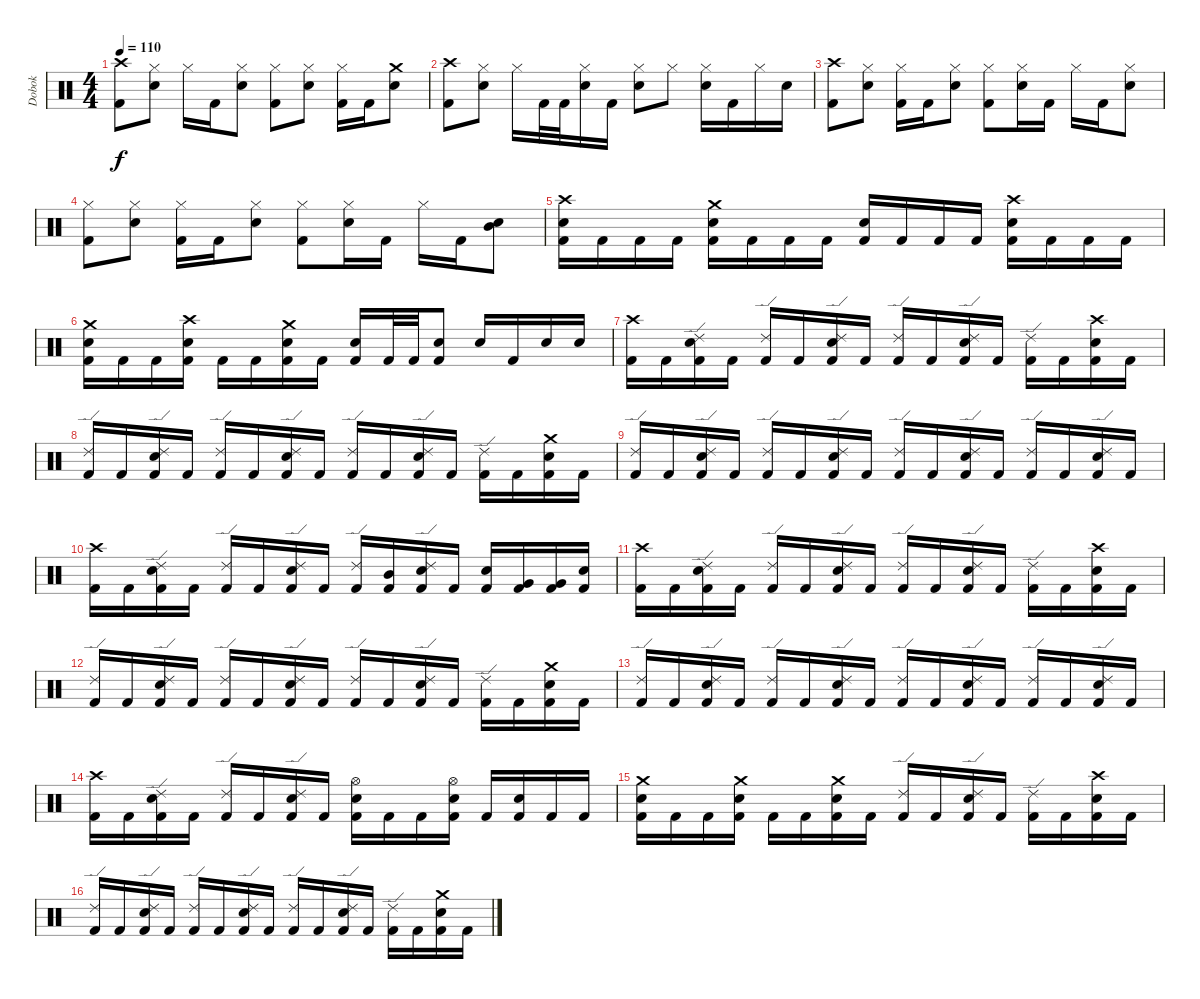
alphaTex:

\track ("Dobok" "Dobok") {instrument percussion}
\staff {score}
\articulation defaults
\ts (4 4)
\tempo 110
\clef neutral
\ks c
("Crash high (hit)" "Kick (hit) 2").8{dy f} ("Hi-Hat (closed)" "Snare (hit) 2").8 "Hi-Hat (closed)".16 "Kick (hit) 2".16 ("Hi-Hat (closed)" "Snare (hit) 2").8 ("Hi-Hat (closed)" "Kick (hit) 2").8 ("Hi-Hat (closed)" "Snare (hit) 2").8 ("Hi-Hat (closed)" "Kick (hit) 2").16 "Kick (hit) 2".16 ("Crash medium (hit)" "Snare (hit) 2").8 |
("Crash high (hit)" "Kick (hit) 2").8 ("Hi-Hat (closed)" "Snare (hit) 2").8 "Hi-Hat (closed)".16 "Kick (hit) 2".32 "Kick (hit) 2".32 ("Hi-Hat (closed)" "Snare (hit) 2").16 "Kick (hit) 2".16 ("Hi-Hat (closed)" "Snare (hit) 2").8 "Hi-Hat (closed)".8 ("Hi-Hat (closed)" "Snare (hit) 2").16 "Kick (hit) 2".16 "Hi-Hat (closed)".16 "Snare (hit) 2".16 |
("Crash high (hit)" "Kick (hit) 2").8 ("Hi-Hat (closed)" "Snare (hit) 2").8 ("Hi-Hat (closed)" "Kick (hit) 2").16 "Kick (hit) 2".16 ("Hi-Hat (closed)" "Snare (hit) 2").8 ("Hi-Hat (closed)" "Kick (hit) 2").8 ("Hi-Hat (closed)" "Snare (hit) 2").16 "Kick (hit) 2".16 "Hi-Hat (closed)".16 "Kick (hit) 2".16 ("Hi-Hat (closed)" "Snare (hit) 2").8 |
("Hi-Hat (closed)" "Kick (hit) 2").8 ("Hi-Hat (closed)" "Snare (hit) 2").8 ("Hi-Hat (closed)" "Kick (hit) 2").16 "Kick (hit) 2".16 ("Hi-Hat (closed)" "Snare (hit) 2").8 ("Hi-Hat (closed)" "Kick (hit) 2").8 ("Hi-Hat (closed)" "Snare (hit) 2").16 "Kick (hit) 2".16 "Hi-Hat (closed)".16 "Kick (hit) 2".16 ("Snare (hit) 2" "Mid Tom (hit)").8 |
("Crash high (hit)" "Snare (hit) 2" "Kick (hit) 2").16 "Kick (hit) 2".16 "Kick (hit) 2".16 "Kick (hit) 2".16 ("Crash medium (hit)" "Snare (hit) 2" "Kick (hit) 2").16 "Kick (hit) 2".16 "Kick (hit) 2".16 "Kick (hit) 2".16 ("Snare (hit) 2" "Kick (hit) 2").16 "Kick (hit) 2".16 "Kick (hit) 2".16 "Kick (hit) 2".16 ("Crash high (hit)" "Snare (hit) 2" "Kick (hit) 2").16 "Kick (hit) 2".16 "Kick (hit) 2".16 "Kick (hit) 2".16 |
("Crash medium (hit)" "Snare (hit) 2" "Kick (hit) 2").16 "Kick (hit) 2".16 "Kick (hit) 2".16 ("Crash high (hit)" "Snare (hit) 2" "Kick (hit) 2").16 "Kick (hit) 2".16 "Kick (hit) 2".16 ("Crash medium (hit)" "Snare (hit) 2" "Kick (hit) 2").16 "Kick (hit) 2".16 ("Snare (hit) 2" "Kick (hit) 2").16 "Kick (hit) 2".32 "Kick (hit) 2".32 ("Snare (hit) 2" "Kick (hit) 2").8 "Snare (hit) 2".16 "Kick (hit) 2".16 "Snare (hit) 2".16 "Snare (hit) 2".16 |
("Crash high (hit)" "Kick (hit) 2").16 "Kick (hit) 2".16 ("Ride (edge) 2" "Snare (hit) 2" "Kick (hit) 2").16 "Kick (hit) 2".16 ("Ride (edge) 2" "Kick (hit) 2").16 "Kick (hit) 2".16 ("Ride (edge) 2" "Snare (hit) 2" "Kick (hit) 2").16 "Kick (hit) 2".16 ("Ride (edge) 2" "Kick (hit) 2").16 "Kick (hit) 2".16 ("Ride (edge) 2" "Snare (hit) 2" "Kick (hit) 2").16 "Kick (hit) 2".16 ("Ride (edge) 2" "Kick (hit) 2").16 "Kick (hit) 2".16 ("Crash high (hit)" "Snare (hit) 2" "Kick (hit) 2").16 "Kick (hit) 2".16 |
("Ride (edge) 2" "Kick (hit) 2").16 "Kick (hit) 2".16 ("Ride (edge) 2" "Snare (hit) 2" "Kick (hit) 2").16 "Kick (hit) 2".16 ("Ride (edge) 2" "Kick (hit) 2").16 "Kick (hit) 2".16 ("Ride (edge) 2" "Snare (hit) 2" "Kick (hit) 2").16 "Kick (hit) 2".16 ("Ride (edge) 2" "Kick (hit) 2").16 "Kick (hit) 2".16 ("Ride (edge) 2" "Snare (hit) 2" "Kick (hit) 2").16 "Kick (hit) 2".16 ("Ride (edge) 2" "Kick (hit) 2").16 "Kick (hit) 2".16 ("Crash medium (hit)" "Snare (hit) 2" "Kick (hit) 2").16 "Kick (hit) 2".16 |
("Ride (edge) 2" "Kick (hit) 2").16 "Kick (hit) 2".16 ("Ride (edge) 2" "Snare (hit) 2" "Kick (hit) 2").16 "Kick (hit) 2".16 ("Ride (edge) 2" "Kick (hit) 2").16 "Kick (hit) 2".16 ("Ride (edge) 2" "Snare (hit) 2" "Kick (hit) 2").16 "Kick (hit) 2".16 ("Ride (edge) 2" "Kick (hit) 2").16 "Kick (hit) 2".16 ("Ride (edge) 2" "Snare (hit) 2" "Kick (hit) 2").16 "Kick (hit) 2".16 ("Ride (edge) 2" "Kick (hit) 2").16 "Kick (hit) 2".16 ("Ride (edge) 2" "Snare (hit) 2" "Kick (hit) 2").16 "Kick (hit) 2".16 |
("Crash high (hit)" "Kick (hit) 2").16 "Kick (hit) 2".16 ("Ride (edge) 2" "Snare (hit) 2" "Kick (hit) 2").16 "Kick (hit) 2".16 ("Ride (edge) 2" "Kick (hit) 2").16 "Kick (hit) 2".16 ("Ride (edge) 2" "Snare (hit) 2" "Kick (hit) 2").16 "Kick (hit) 2".16 ("Ride (edge) 2" "Kick (hit) 2").16 ("Mid Tom (hit)" "Kick (hit) 2").16 ("Ride (edge) 2" "Snare (hit) 2" "Kick (hit) 2").16 "Kick (hit) 2".16 ("Snare (hit) 2" "Kick (hit) 2").16 ("Very Low Tom (hit)" "Kick (hit) 2").16 ("Very Low Tom (hit)" "Kick (hit) 2").16 ("Snare (hit) 2" "Kick (hit) 2").16 |
("Crash high (hit)" "Kick (hit) 2").16 "Kick (hit) 2".16 ("Ride (edge) 2" "Snare (hit) 2" "Kick (hit) 2").16 "Kick (hit) 2".16 ("Ride (edge) 2" "Kick (hit) 2").16 "Kick (hit) 2".16 ("Ride (edge) 2" "Snare (hit) 2" "Kick (hit) 2").16 "Kick (hit) 2".16 ("Ride (edge) 2" "Kick (hit) 2").16 "Kick (hit) 2".16 ("Ride (edge) 2" "Snare (hit) 2" "Kick (hit) 2").16 "Kick (hit) 2".16 ("Ride (edge) 2" "Kick (hit) 2").16 "Kick (hit) 2".16 ("Crash high (hit)" "Snare (hit) 2" "Kick (hit) 2").16 "Kick (hit) 2".16 |
("Ride (edge) 2" "Kick (hit) 2").16 "Kick (hit) 2".16 ("Ride (edge) 2" "Snare (hit) 2" "Kick (hit) 2").16 "Kick (hit) 2".16 ("Ride (edge) 2" "Kick (hit) 2").16 "Kick (hit) 2".16 ("Ride (edge) 2" "Snare (hit) 2" "Kick (hit) 2").16 "Kick (hit) 2".16 ("Ride (edge) 2" "Kick (hit) 2").16 "Kick (hit) 2".16 ("Ride (edge) 2" "Snare (hit) 2" "Kick (hit) 2").16 "Kick (hit) 2".16 ("Ride (edge) 2" "Kick (hit) 2").16 "Kick (hit) 2".16 ("Crash medium (hit)" "Snare (hit) 2" "Kick (hit) 2").16 "Kick (hit) 2".16 |
("Ride (edge) 2" "Kick (hit) 2").16 "Kick (hit) 2".16 ("Ride (edge) 2" "Snare (hit) 2" "Kick (hit) 2").16 "Kick (hit) 2".16 ("Ride (edge) 2" "Kick (hit) 2").16 "Kick (hit) 2".16 ("Ride (edge) 2" "Snare (hit) 2" "Kick (hit) 2").16 "Kick (hit) 2".16 ("Ride (edge) 2" "Kick (hit) 2").16 "Kick (hit) 2".16 ("Ride (edge) 2" "Snare (hit) 2" "Kick (hit) 2").16 "Kick (hit) 2".16 ("Ride (edge) 2" "Kick (hit) 2").16 "Kick (hit) 2".16 ("Ride (edge) 2" "Snare (hit) 2" "Kick (hit) 2").16 "Kick (hit) 2".16 |
("Crash high (hit)" "Kick (hit) 2").16 "Kick (hit) 2".16 ("Ride (edge) 2" "Snare (hit) 2" "Kick (hit) 2").16 "Kick (hit) 2".16 ("Ride (edge) 2" "Kick (hit) 2").16 "Kick (hit) 2".16 ("Ride (edge) 2" "Snare (hit) 2" "Kick (hit) 2").16 "Kick (hit) 2".16 ("Hi-Hat (open)" "Snare (hit) 2" "Kick (hit) 2").16 "Kick (hit) 2".16 "Kick (hit) 2".16 ("Hi-Hat (open)" "Snare (hit) 2" "Kick (hit) 2").16 "Kick (hit) 2".16 ("Snare (hit) 2" "Kick (hit) 2").16 "Kick (hit) 2".16 "Kick (hit) 2".16 |
("Crash medium (hit)" "Snare (hit) 2" "Kick (hit) 2").16 "Kick (hit) 2".16 "Kick (hit) 2".16 ("Crash medium (hit)" "Snare (hit) 2" "Kick (hit) 2").16 "Kick (hit) 2".16 "Kick (hit) 2".16 ("Crash medium (hit)" "Snare (hit) 2" "Kick (hit) 2").16 "Kick (hit) 2".16 ("Ride (edge) 2" "Kick (hit) 2").16 "Kick (hit) 2".16 ("Ride (edge) 2" "Snare (hit) 2" "Kick (hit) 2").16 "Kick (hit) 2".16 ("Ride (edge) 2" "Kick (hit) 2").16 "Kick (hit) 2".16 ("Crash high (hit)" "Snare (hit) 2" "Kick (hit) 2").16 "Kick (hit) 2".16 |
("Ride (edge) 2" "Kick (hit) 2").16 "Kick (hit) 2".16 ("Ride (edge) 2" "Snare (hit) 2" "Kick (hit) 2").16 "Kick (hit) 2".16 ("Ride (edge) 2" "Kick (hit) 2").16 "Kick (hit) 2".16 ("Ride (edge) 2" "Snare (hit) 2" "Kick (hit) 2").16 "Kick (hit) 2".16 ("Ride (edge) 2" "Kick (hit) 2").16 "Kick (hit) 2".16 ("Ride (edge) 2" "Snare (hit) 2" "Kick (hit) 2").16 "Kick (hit) 2".16 ("Ride (edge) 2" "Kick (hit) 2").16 "Kick (hit) 2".16 ("Crash medium (hit)" "Snare (hit) 2" "Kick (hit) 2").16 "Kick (hit) 2".16
